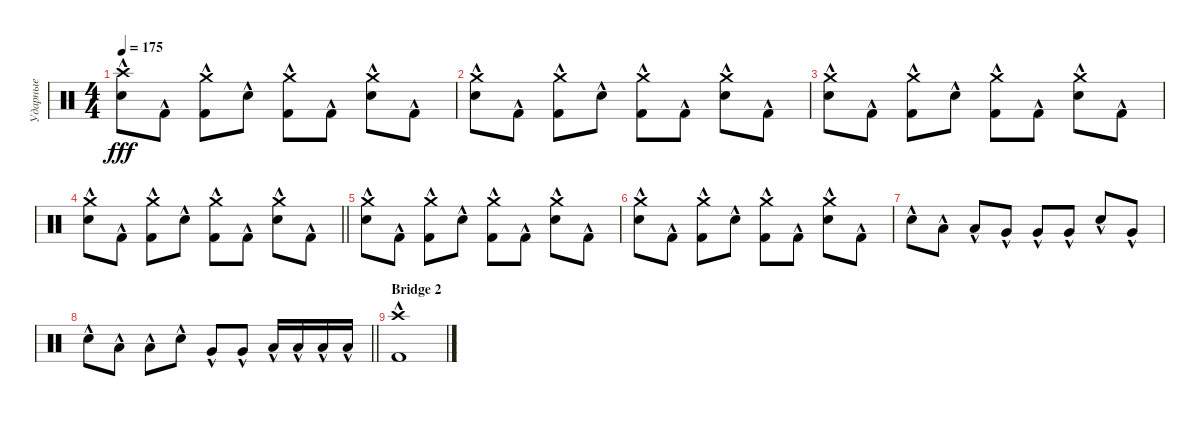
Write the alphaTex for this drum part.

\track ("Ударные" "Ударные") {instrument percussion}
\staff {score}
\articulation defaults
\ts (4 4)
\tempo 175
\clef neutral
\ks c
("Crash high (hit)"{hac} "Snare (hit) 2"{hac}).8{dy fff} "Kick (hit) 2"{hac}.8 ("Crash medium (hit)"{hac} "Kick (hit) 2"{hac}).8 "Snare (hit) 2"{hac}.8 ("Crash medium (hit)"{hac} "Kick (hit) 2"{hac}).8 "Kick (hit) 2"{hac}.8 ("Crash medium (hit)"{hac} "Snare (hit) 2"{hac}).8 "Kick (hit) 2"{hac}.8 |
("Crash medium (hit)"{hac} "Snare (hit) 2"{hac}).8 "Kick (hit) 2"{hac}.8 ("Crash medium (hit)"{hac} "Kick (hit) 2"{hac}).8 "Snare (hit) 2"{hac}.8 ("Crash medium (hit)"{hac} "Kick (hit) 2"{hac}).8 "Kick (hit) 2"{hac}.8 ("Crash medium (hit)"{hac} "Snare (hit) 2"{hac}).8 "Kick (hit) 2"{hac}.8 |
("Crash medium (hit)"{hac} "Snare (hit) 2"{hac}).8 "Kick (hit) 2"{hac}.8 ("Crash medium (hit)"{hac} "Kick (hit) 2"{hac}).8 "Snare (hit) 2"{hac}.8 ("Crash medium (hit)"{hac} "Kick (hit) 2"{hac}).8 "Kick (hit) 2"{hac}.8 ("Crash medium (hit)"{hac} "Snare (hit) 2"{hac}).8 "Kick (hit) 2"{hac}.8 |
\barLineRight lightlight
("Crash medium (hit)"{hac} "Snare (hit) 2"{hac}).8 "Kick (hit) 2"{hac}.8 ("Crash medium (hit)"{hac} "Kick (hit) 2"{hac}).8 "Snare (hit) 2"{hac}.8 ("Crash medium (hit)"{hac} "Kick (hit) 2"{hac}).8 "Kick (hit) 2"{hac}.8 ("Crash medium (hit)"{hac} "Snare (hit) 2"{hac}).8 "Kick (hit) 2"{hac}.8 |
("Crash medium (hit)"{hac} "Snare (hit) 2"{hac}).8 "Kick (hit) 2"{hac}.8 ("Crash medium (hit)"{hac} "Kick (hit) 2"{hac}).8 "Snare (hit) 2"{hac}.8 ("Crash medium (hit)"{hac} "Kick (hit) 2"{hac}).8 "Kick (hit) 2"{hac}.8 ("Crash medium (hit)"{hac} "Snare (hit) 2"{hac}).8 "Kick (hit) 2"{hac}.8 |
("Crash medium (hit)"{hac} "Snare (hit) 2"{hac}).8 "Kick (hit) 2"{hac}.8 ("Crash medium (hit)"{hac} "Kick (hit) 2"{hac}).8 "Snare (hit) 2"{hac}.8 ("Crash medium (hit)"{hac} "Kick (hit) 2"{hac}).8 "Kick (hit) 2"{hac}.8 ("Crash medium (hit)"{hac} "Snare (hit) 2"{hac}).8 "Kick (hit) 2"{hac}.8 |
"Snare (hit) 2"{hac}.8 "Low Tom (hit)"{hac}.8 "Low Tom (hit)"{hac}.8 "Very Low Tom (hit)"{hac}.8 "Very Low Tom (hit)"{hac}.8 "Very Low Tom (hit)"{hac}.8 "Snare (hit) 2"{hac}.8 "Very Low Tom (hit)"{hac}.8 |
\barLineRight lightlight "Snare (hit) 2"{hac}.8 "Low Floor Tom (hit)"{hac}.8 "Low Floor Tom (hit)"{hac}.8 "Snare (hit) 2"{hac}.8 "Very Low Tom (hit)"{hac}.8 "Very Low Tom (hit)"{hac}.8 "Low Floor Tom (hit)"{hac}.16 "Low Floor Tom (hit)"{hac}.16 "Low Floor Tom (hit)"{hac}.16 "Low Floor Tom (hit)"{hac}.16
|
\section ("" "Bridge 2")
("Crash high (hit)"{hac} "Kick (hit) 2"{hac}).1
